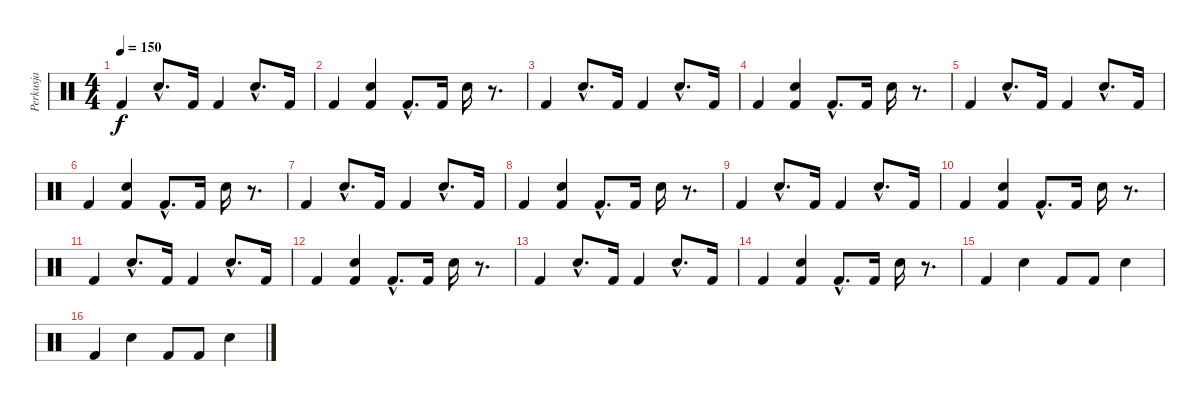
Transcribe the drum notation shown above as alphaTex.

\track ("Perkusja" "Perkusja") {instrument percussion}
\staff {score}
\articulation defaults
\ts (4 4)
\tempo 150
\clef neutral
\ks c "Kick (hit) 2".4{dy f} "Electric Snare (hit)"{hac}.8{d} "Kick (hit) 2".16 "Kick (hit) 2".4 "Electric Snare (hit)"{hac}.8{d} "Kick (hit) 2".16
|
"Kick (hit) 2".4 ("Electric Snare (hit)" "Kick (hit) 2").4 "Kick (hit) 2"{hac}.8{d} "Kick (hit) 2".16 "Electric Snare (hit)".16 r.8{d} |
"Kick (hit) 2".4 "Electric Snare (hit)"{hac}.8{d} "Kick (hit) 2".16 "Kick (hit) 2".4 "Electric Snare (hit)"{hac}.8{d} "Kick (hit) 2".16 |
"Kick (hit) 2".4 ("Electric Snare (hit)" "Kick (hit) 2").4 "Kick (hit) 2"{hac}.8{d} "Kick (hit) 2".16 "Electric Snare (hit)".16 r.8{d} |
"Kick (hit) 2".4 "Electric Snare (hit)"{hac}.8{d} "Kick (hit) 2".16 "Kick (hit) 2".4 "Electric Snare (hit)"{hac}.8{d} "Kick (hit) 2".16 |
"Kick (hit) 2".4 ("Electric Snare (hit)" "Kick (hit) 2").4 "Kick (hit) 2"{hac}.8{d} "Kick (hit) 2".16 "Electric Snare (hit)".16 r.8{d} |
"Kick (hit) 2".4 "Electric Snare (hit)"{hac}.8{d} "Kick (hit) 2".16 "Kick (hit) 2".4 "Electric Snare (hit)"{hac}.8{d} "Kick (hit) 2".16 |
"Kick (hit) 2".4 ("Electric Snare (hit)" "Kick (hit) 2").4 "Kick (hit) 2"{hac}.8{d} "Kick (hit) 2".16 "Electric Snare (hit)".16 r.8{d} |
"Kick (hit) 2".4 "Electric Snare (hit)"{hac}.8{d} "Kick (hit) 2".16 "Kick (hit) 2".4 "Electric Snare (hit)"{hac}.8{d} "Kick (hit) 2".16 |
"Kick (hit) 2".4 ("Electric Snare (hit)" "Kick (hit) 2").4 "Kick (hit) 2"{hac}.8{d} "Kick (hit) 2".16 "Electric Snare (hit)".16 r.8{d} |
"Kick (hit) 2".4 "Electric Snare (hit)"{hac}.8{d} "Kick (hit) 2".16 "Kick (hit) 2".4 "Electric Snare (hit)"{hac}.8{d} "Kick (hit) 2".16 |
"Kick (hit) 2".4 ("Electric Snare (hit)" "Kick (hit) 2").4 "Kick (hit) 2"{hac}.8{d} "Kick (hit) 2".16 "Electric Snare (hit)".16 r.8{d} |
"Kick (hit) 2".4 "Electric Snare (hit)"{hac}.8{d} "Kick (hit) 2".16 "Kick (hit) 2".4 "Electric Snare (hit)"{hac}.8{d} "Kick (hit) 2".16 |
"Kick (hit) 2".4 ("Electric Snare (hit)" "Kick (hit) 2").4 "Kick (hit) 2"{hac}.8{d} "Kick (hit) 2".16 "Electric Snare (hit)".16 r.8{d} |
"Kick (hit) 2".4 "Electric Snare (hit)".4 "Kick (hit) 2".8 "Kick (hit) 2".8 "Electric Snare (hit)".4 |
"Kick (hit) 2".4 "Electric Snare (hit)".4 "Kick (hit) 2".8 "Kick (hit) 2".8 "Electric Snare (hit)".4
